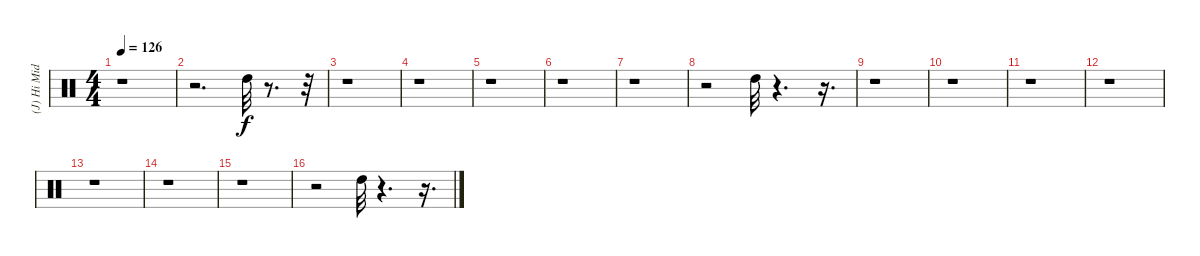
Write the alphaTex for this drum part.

\track ("(J) Hi Mid Tom" "(J) Hi Mid") {instrument percussion}
\staff {score}
\articulation defaults
\ts (4 4)
\tempo 126
\clef neutral
\ks c
r.1{dy f} |
r.2{d} "High Tom (hit)".32 r.8{d} r.32 |
r.1 |
r.1 |
r.1 |
r.1 |
r.1 |
r.2 "High Tom (hit)".32 r.4{d} r.16{d} |
r.1 |
r.1 |
r.1 |
r.1 |
r.1 |
r.1 |
r.1 |
r.2 "High Tom (hit)".32 r.4{d} r.16{d}
